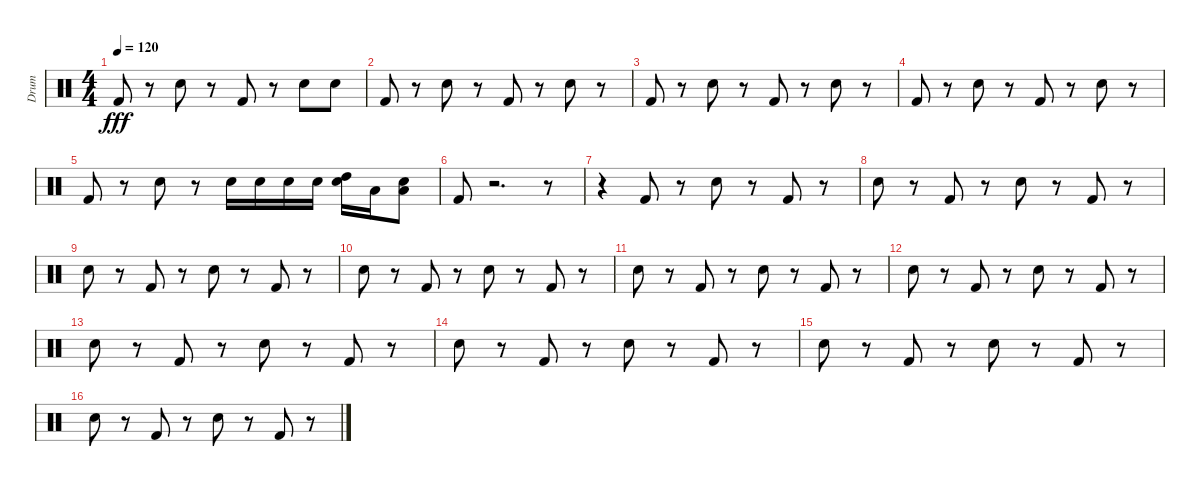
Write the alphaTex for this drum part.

\track ("Drum" "Drum") {instrument percussion}
\staff {score}
\articulation defaults
\ts (4 4)
\tempo 120
\clef neutral
\ks c "Kick (hit) 2".8{dy fff}
r.8 "Snare (hit) 2".8 r.8 "Kick (hit) 2".8 r.8 "Snare (hit) 2".8 "Snare (hit) 2".8 |
"Kick (hit) 2".8 r.8 "Snare (hit) 2".8 r.8 "Kick (hit) 2".8 r.8 "Snare (hit) 2".8 r.8 |
"Kick (hit) 2".8 r.8 "Snare (hit) 2".8 r.8 "Kick (hit) 2".8 r.8 "Snare (hit) 2".8 r.8 |
"Kick (hit) 2".8 r.8 "Snare (hit) 2".8 r.8 "Kick (hit) 2".8 r.8 "Snare (hit) 2".8 r.8 |
"Kick (hit) 2".8 r.8 "Snare (hit) 2".8 r.8 "Snare (hit) 2".16 "Snare (hit) 2".16 "Snare (hit) 2".16 "Snare (hit) 2".16 ("High Tom (hit)" "Snare (hit) 2").16 "Low Tom (hit)".16 ("Snare (hit) 2" "Low Floor Tom (hit)").8 |
"Kick (hit) 2".8 r.2{d} r.8 |
r.4 "Kick (hit) 2".8 r.8 "Snare (hit) 2".8 r.8 "Kick (hit) 2".8 r.8 |
"Snare (hit) 2".8 r.8 "Kick (hit) 2".8 r.8 "Snare (hit) 2".8 r.8 "Kick (hit) 2".8 r.8 |
"Snare (hit) 2".8 r.8 "Kick (hit) 2".8 r.8 "Snare (hit) 2".8 r.8 "Kick (hit) 2".8 r.8 |
"Snare (hit) 2".8 r.8 "Kick (hit) 2".8 r.8 "Snare (hit) 2".8 r.8 "Kick (hit) 2".8 r.8 |
"Snare (hit) 2".8 r.8 "Kick (hit) 2".8 r.8 "Snare (hit) 2".8 r.8 "Kick (hit) 2".8 r.8 |
"Snare (hit) 2".8 r.8 "Kick (hit) 2".8 r.8 "Snare (hit) 2".8 r.8 "Kick (hit) 2".8 r.8 |
"Snare (hit) 2".8 r.8 "Kick (hit) 2".8 r.8 "Snare (hit) 2".8 r.8 "Kick (hit) 2".8 r.8 |
"Snare (hit) 2".8 r.8 "Kick (hit) 2".8 r.8 "Snare (hit) 2".8 r.8 "Kick (hit) 2".8 r.8 |
"Snare (hit) 2".8 r.8 "Kick (hit) 2".8 r.8 "Snare (hit) 2".8 r.8 "Kick (hit) 2".8 r.8 |
"Snare (hit) 2".8 r.8 "Kick (hit) 2".8 r.8 "Snare (hit) 2".8 r.8 "Kick (hit) 2".8 r.8
